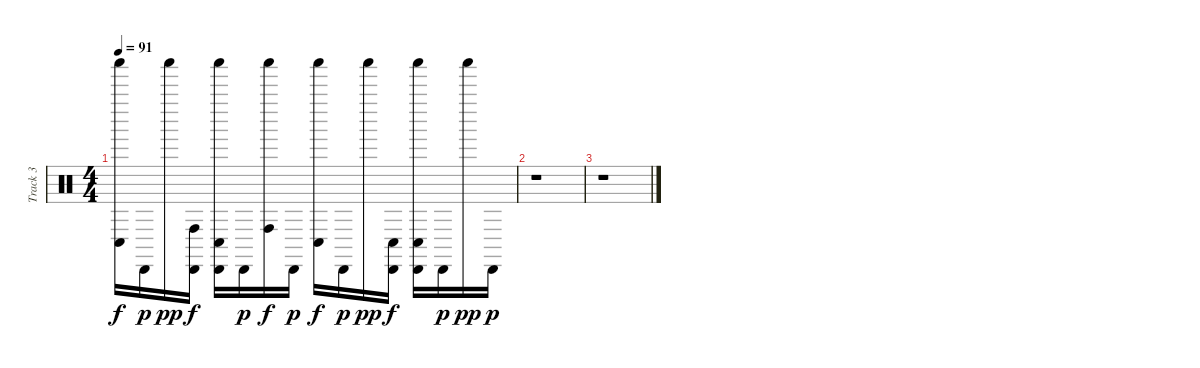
\track ("Track 3" "Track 3") {instrument percussion}
\staff {score}
\articulation defaults
\ts (4 4)
\tempo 91
\clef neutral
\ks c
("Shaker (hit)" "Conga low (hit)").16{dy f} "Cabasa (hit)".16{dy p} "Shaker (hit)".16{dy pp} ("Cabasa (hit)" "Conga high (hit)").16{dy f} ("Cabasa (hit)" "Shaker (hit)" "Conga low (hit)").16 "Cabasa (hit)".16{dy p} ("Shaker (hit)" "Conga high (hit)").16{dy f} "Cabasa (hit)".16{dy p} ("Shaker (hit)" "Conga low (hit)").16{dy f} "Cabasa (hit)".16{dy p} "Shaker (hit)".16{dy pp} ("Cabasa (hit)" "Conga low (hit)").16{dy f} ("Cabasa (hit)" "Shaker (hit)" "Conga low (hit)").16 "Cabasa (hit)".16{dy p} "Shaker (hit)".16{dy pp} "Cabasa (hit)".16{dy p} |
r.1 |
r.1
